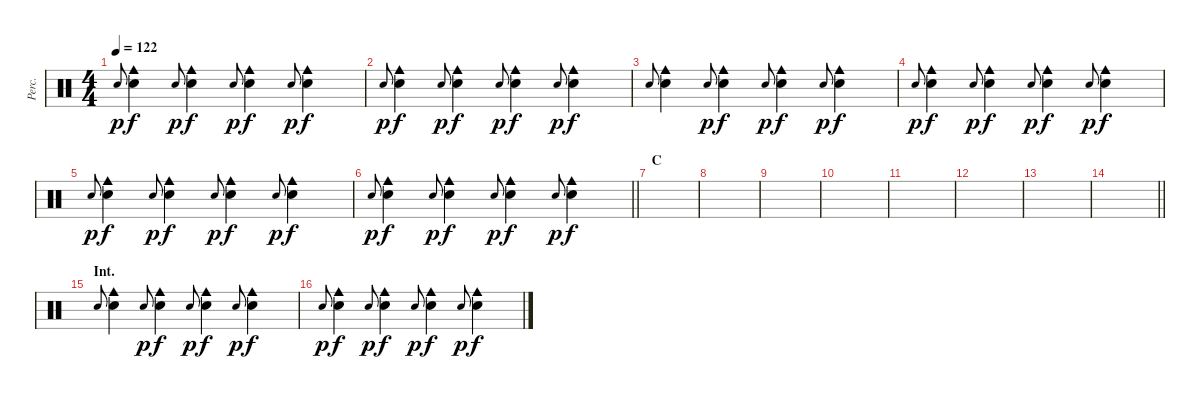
\track ("Perc." "Perc.") {instrument percussion}
\staff {score}
\articulation defaults
\ts (4 4)
\tempo 122
\clef neutral
\ks c "Hand Clap (hit)".8{gr onbeat dy p}
("Hand Clap (hit)" "Cowbell medium (hit)").4{dy f} "Hand Clap (hit)".8{gr onbeat dy p} ("Hand Clap (hit)" "Cowbell medium (hit)").4{dy f} "Hand Clap (hit)".8{gr onbeat dy p} ("Hand Clap (hit)" "Cowbell medium (hit)").4{dy f} "Hand Clap (hit)".8{gr onbeat dy p} ("Hand Clap (hit)" "Cowbell medium (hit)").4{dy f} |
"Hand Clap (hit)".8{gr onbeat dy p} ("Hand Clap (hit)" "Cowbell medium (hit)").4{dy f} "Hand Clap (hit)".8{gr onbeat dy p} ("Hand Clap (hit)" "Cowbell medium (hit)").4{dy f} "Hand Clap (hit)".8{gr onbeat dy p} ("Hand Clap (hit)" "Cowbell medium (hit)").4{dy f} "Hand Clap (hit)".8{gr onbeat dy p} ("Hand Clap (hit)" "Cowbell medium (hit)").4{dy f} |
"Hand Clap (hit)".8{gr onbeat} ("Hand Clap (hit)" "Cowbell medium (hit)").4 "Hand Clap (hit)".8{gr onbeat dy p} ("Hand Clap (hit)" "Cowbell medium (hit)").4{dy f} "Hand Clap (hit)".8{gr onbeat dy p} ("Hand Clap (hit)" "Cowbell medium (hit)").4{dy f} "Hand Clap (hit)".8{gr onbeat dy p} ("Hand Clap (hit)" "Cowbell medium (hit)").4{dy f} |
"Hand Clap (hit)".8{gr onbeat dy p} ("Hand Clap (hit)" "Cowbell medium (hit)").4{dy f} "Hand Clap (hit)".8{gr onbeat dy p} ("Hand Clap (hit)" "Cowbell medium (hit)").4{dy f} "Hand Clap (hit)".8{gr onbeat dy p} ("Hand Clap (hit)" "Cowbell medium (hit)").4{dy f} "Hand Clap (hit)".8{gr onbeat dy p} ("Hand Clap (hit)" "Cowbell medium (hit)").4{dy f} |
"Hand Clap (hit)".8{gr onbeat dy p} ("Hand Clap (hit)" "Cowbell medium (hit)").4{dy f} "Hand Clap (hit)".8{gr onbeat dy p} ("Hand Clap (hit)" "Cowbell medium (hit)").4{dy f} "Hand Clap (hit)".8{gr onbeat dy p} ("Hand Clap (hit)" "Cowbell medium (hit)").4{dy f} "Hand Clap (hit)".8{gr onbeat dy p} ("Hand Clap (hit)" "Cowbell medium (hit)").4{dy f} |
\barLineRight lightlight "Hand Clap (hit)".8{gr onbeat dy p}
("Hand Clap (hit)" "Cowbell medium (hit)").4{dy f} "Hand Clap (hit)".8{gr onbeat dy p} ("Hand Clap (hit)" "Cowbell medium (hit)").4{dy f} "Hand Clap (hit)".8{gr onbeat dy p} ("Hand Clap (hit)" "Cowbell medium (hit)").4{dy f} "Hand Clap (hit)".8{gr onbeat dy p} ("Hand Clap (hit)" "Cowbell medium (hit)").4{dy f} |
\section ("" "C")
|
|
|
|
|
|
|
\barLineRight lightlight
|
\section ("" "Int.")
"Hand Clap (hit)".8{gr onbeat} ("Hand Clap (hit)" "Cowbell medium (hit)").4 "Hand Clap (hit)".8{gr onbeat dy p} ("Hand Clap (hit)" "Cowbell medium (hit)").4{dy f} "Hand Clap (hit)".8{gr onbeat dy p} ("Hand Clap (hit)" "Cowbell medium (hit)").4{dy f} "Hand Clap (hit)".8{gr onbeat dy p} ("Hand Clap (hit)" "Cowbell medium (hit)").4{dy f} |
"Hand Clap (hit)".8{gr onbeat dy p} ("Hand Clap (hit)" "Cowbell medium (hit)").4{dy f} "Hand Clap (hit)".8{gr onbeat dy p} ("Hand Clap (hit)" "Cowbell medium (hit)").4{dy f} "Hand Clap (hit)".8{gr onbeat dy p} ("Hand Clap (hit)" "Cowbell medium (hit)").4{dy f} "Hand Clap (hit)".8{gr onbeat dy p} ("Hand Clap (hit)" "Cowbell medium (hit)").4{dy f}
